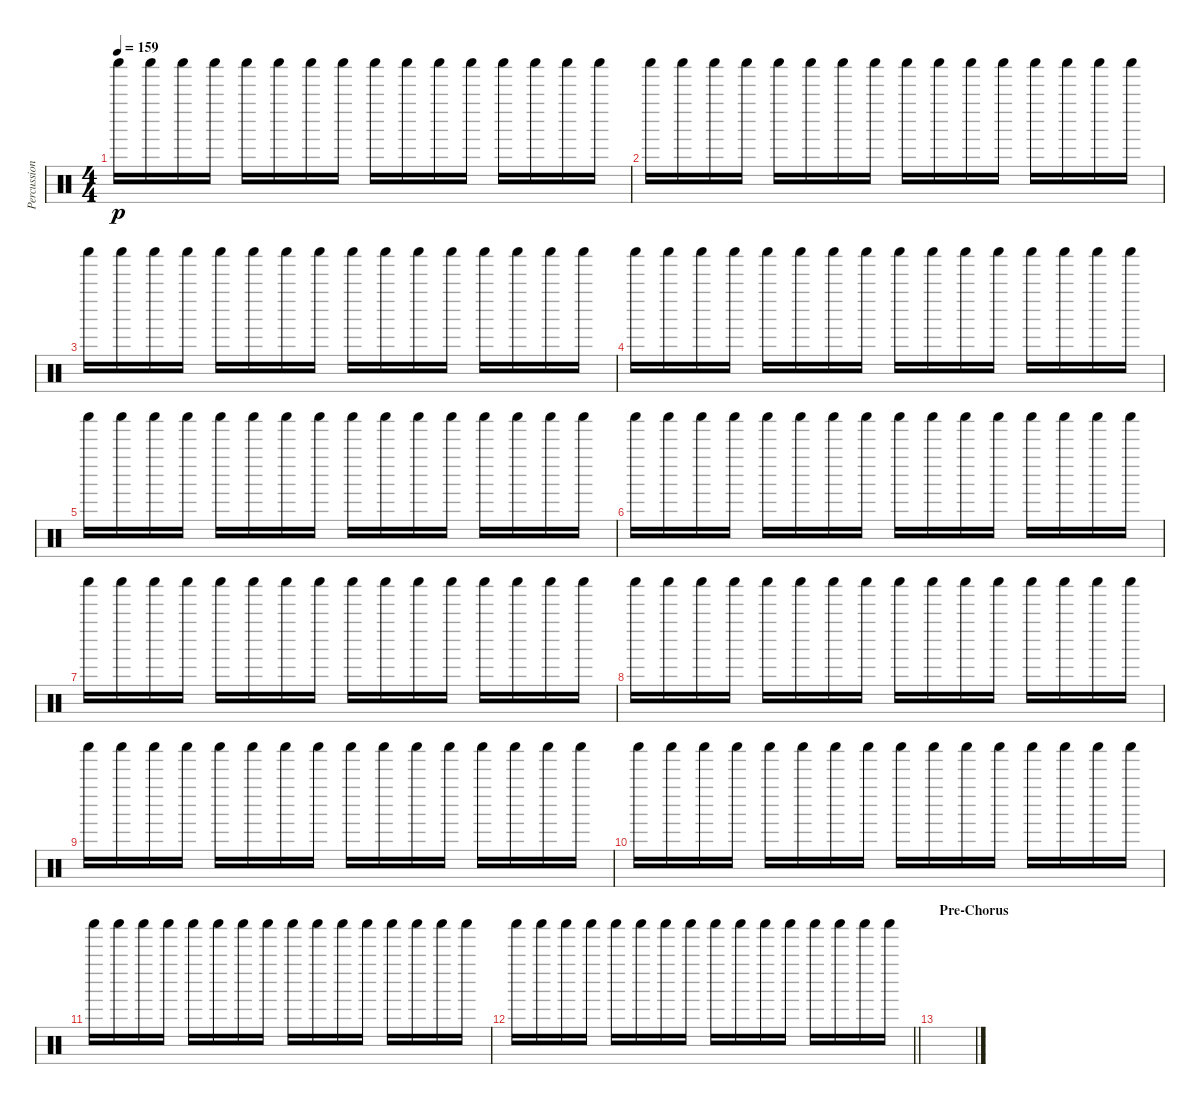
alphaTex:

\track ("Percussion" "Percussion") {instrument percussion}
\staff {score}
\articulation defaults
\ts (4 4)
\tempo 159
\clef neutral
\ks c "Shaker (hit)".16{dy p} "Shaker (hit)".16 "Shaker (hit)".16 "Shaker (hit)".16 "Shaker (hit)".16 "Shaker (hit)".16 "Shaker (hit)".16 "Shaker (hit)".16 "Shaker (hit)".16 "Shaker (hit)".16 "Shaker (hit)".16 "Shaker (hit)".16 "Shaker (hit)".16 "Shaker (hit)".16 "Shaker (hit)".16 "Shaker (hit)".16
|
"Shaker (hit)".16 "Shaker (hit)".16 "Shaker (hit)".16 "Shaker (hit)".16 "Shaker (hit)".16 "Shaker (hit)".16 "Shaker (hit)".16 "Shaker (hit)".16 "Shaker (hit)".16 "Shaker (hit)".16 "Shaker (hit)".16 "Shaker (hit)".16 "Shaker (hit)".16 "Shaker (hit)".16 "Shaker (hit)".16 "Shaker (hit)".16 |
"Shaker (hit)".16 "Shaker (hit)".16 "Shaker (hit)".16 "Shaker (hit)".16 "Shaker (hit)".16 "Shaker (hit)".16 "Shaker (hit)".16 "Shaker (hit)".16 "Shaker (hit)".16 "Shaker (hit)".16 "Shaker (hit)".16 "Shaker (hit)".16 "Shaker (hit)".16 "Shaker (hit)".16 "Shaker (hit)".16 "Shaker (hit)".16 |
"Shaker (hit)".16 "Shaker (hit)".16 "Shaker (hit)".16 "Shaker (hit)".16 "Shaker (hit)".16 "Shaker (hit)".16 "Shaker (hit)".16 "Shaker (hit)".16 "Shaker (hit)".16 "Shaker (hit)".16 "Shaker (hit)".16 "Shaker (hit)".16 "Shaker (hit)".16 "Shaker (hit)".16 "Shaker (hit)".16 "Shaker (hit)".16 |
"Shaker (hit)".16 "Shaker (hit)".16 "Shaker (hit)".16 "Shaker (hit)".16 "Shaker (hit)".16 "Shaker (hit)".16 "Shaker (hit)".16 "Shaker (hit)".16 "Shaker (hit)".16 "Shaker (hit)".16 "Shaker (hit)".16 "Shaker (hit)".16 "Shaker (hit)".16 "Shaker (hit)".16 "Shaker (hit)".16 "Shaker (hit)".16 |
"Shaker (hit)".16 "Shaker (hit)".16 "Shaker (hit)".16 "Shaker (hit)".16 "Shaker (hit)".16 "Shaker (hit)".16 "Shaker (hit)".16 "Shaker (hit)".16 "Shaker (hit)".16 "Shaker (hit)".16 "Shaker (hit)".16 "Shaker (hit)".16 "Shaker (hit)".16 "Shaker (hit)".16 "Shaker (hit)".16 "Shaker (hit)".16 |
"Shaker (hit)".16 "Shaker (hit)".16 "Shaker (hit)".16 "Shaker (hit)".16 "Shaker (hit)".16 "Shaker (hit)".16 "Shaker (hit)".16 "Shaker (hit)".16 "Shaker (hit)".16 "Shaker (hit)".16 "Shaker (hit)".16 "Shaker (hit)".16 "Shaker (hit)".16 "Shaker (hit)".16 "Shaker (hit)".16 "Shaker (hit)".16 |
"Shaker (hit)".16 "Shaker (hit)".16 "Shaker (hit)".16 "Shaker (hit)".16 "Shaker (hit)".16 "Shaker (hit)".16 "Shaker (hit)".16 "Shaker (hit)".16 "Shaker (hit)".16 "Shaker (hit)".16 "Shaker (hit)".16 "Shaker (hit)".16 "Shaker (hit)".16 "Shaker (hit)".16 "Shaker (hit)".16 "Shaker (hit)".16 |
"Shaker (hit)".16 "Shaker (hit)".16 "Shaker (hit)".16 "Shaker (hit)".16 "Shaker (hit)".16 "Shaker (hit)".16 "Shaker (hit)".16 "Shaker (hit)".16 "Shaker (hit)".16 "Shaker (hit)".16 "Shaker (hit)".16 "Shaker (hit)".16 "Shaker (hit)".16 "Shaker (hit)".16 "Shaker (hit)".16 "Shaker (hit)".16 |
"Shaker (hit)".16 "Shaker (hit)".16 "Shaker (hit)".16 "Shaker (hit)".16 "Shaker (hit)".16 "Shaker (hit)".16 "Shaker (hit)".16 "Shaker (hit)".16 "Shaker (hit)".16 "Shaker (hit)".16 "Shaker (hit)".16 "Shaker (hit)".16 "Shaker (hit)".16 "Shaker (hit)".16 "Shaker (hit)".16 "Shaker (hit)".16 |
"Shaker (hit)".16 "Shaker (hit)".16 "Shaker (hit)".16 "Shaker (hit)".16 "Shaker (hit)".16 "Shaker (hit)".16 "Shaker (hit)".16 "Shaker (hit)".16 "Shaker (hit)".16 "Shaker (hit)".16 "Shaker (hit)".16 "Shaker (hit)".16 "Shaker (hit)".16 "Shaker (hit)".16 "Shaker (hit)".16 "Shaker (hit)".16 |
\barLineRight lightlight "Shaker (hit)".16 "Shaker (hit)".16 "Shaker (hit)".16 "Shaker (hit)".16 "Shaker (hit)".16 "Shaker (hit)".16 "Shaker (hit)".16 "Shaker (hit)".16 "Shaker (hit)".16 "Shaker (hit)".16 "Shaker (hit)".16 "Shaker (hit)".16 "Shaker (hit)".16 "Shaker (hit)".16 "Shaker (hit)".16 "Shaker (hit)".16
|
\section ("" "Pre-Chorus")
